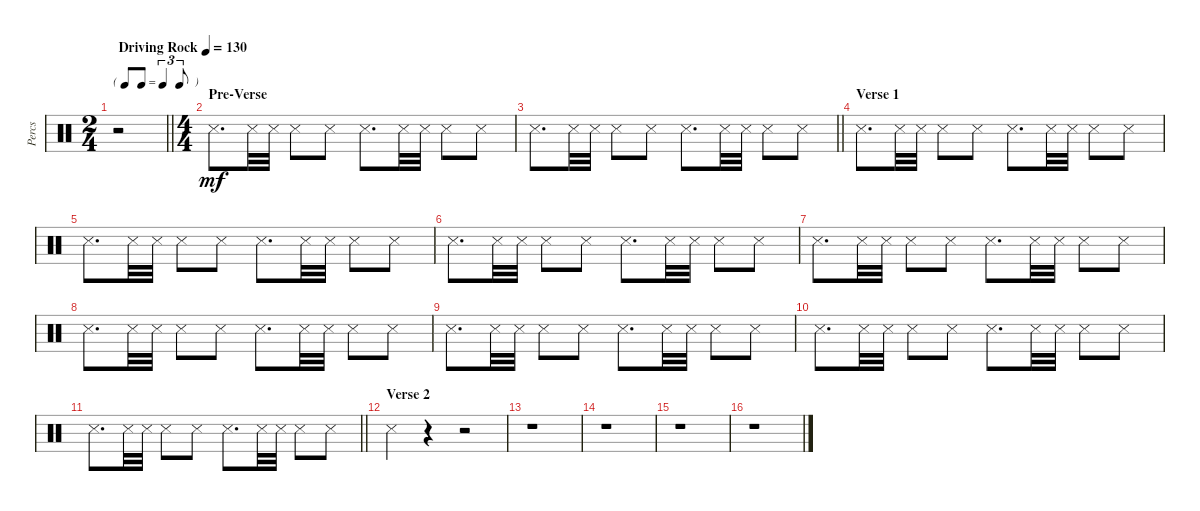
\track ("Percs" "Percs") {instrument percussion}
\staff {score}
\articulation defaults
\ts (2 4)
\tf triplet8th
\tempo (130 "Driving Rock")
\clef neutral
\barLineRight lightlight
\ks c
r.2{dy mf} |
\ts (4 4)
\section ("" "Pre-Verse")
"Snare (side stick) 3".8{d} "Snare (side stick) 3".32 "Snare (side stick) 3".32 "Snare (side stick) 3".8 "Snare (side stick) 3".8 "Snare (side stick) 3".8{d} "Snare (side stick) 3".32 "Snare (side stick) 3".32 "Snare (side stick) 3".8 "Snare (side stick) 3".8 |
\barLineRight lightlight "Snare (side stick) 3".8{d} "Snare (side stick) 3".32 "Snare (side stick) 3".32 "Snare (side stick) 3".8 "Snare (side stick) 3".8 "Snare (side stick) 3".8{d} "Snare (side stick) 3".32 "Snare (side stick) 3".32 "Snare (side stick) 3".8 "Snare (side stick) 3".8
|
\section ("" "Verse 1")
"Snare (side stick) 3".8{d} "Snare (side stick) 3".32 "Snare (side stick) 3".32 "Snare (side stick) 3".8 "Snare (side stick) 3".8 "Snare (side stick) 3".8{d} "Snare (side stick) 3".32 "Snare (side stick) 3".32 "Snare (side stick) 3".8 "Snare (side stick) 3".8 |
"Snare (side stick) 3".8{d} "Snare (side stick) 3".32 "Snare (side stick) 3".32 "Snare (side stick) 3".8 "Snare (side stick) 3".8 "Snare (side stick) 3".8{d} "Snare (side stick) 3".32 "Snare (side stick) 3".32 "Snare (side stick) 3".8 "Snare (side stick) 3".8 |
"Snare (side stick) 3".8{d} "Snare (side stick) 3".32 "Snare (side stick) 3".32 "Snare (side stick) 3".8 "Snare (side stick) 3".8 "Snare (side stick) 3".8{d} "Snare (side stick) 3".32 "Snare (side stick) 3".32 "Snare (side stick) 3".8 "Snare (side stick) 3".8 |
"Snare (side stick) 3".8{d} "Snare (side stick) 3".32 "Snare (side stick) 3".32 "Snare (side stick) 3".8 "Snare (side stick) 3".8 "Snare (side stick) 3".8{d} "Snare (side stick) 3".32 "Snare (side stick) 3".32 "Snare (side stick) 3".8 "Snare (side stick) 3".8 |
"Snare (side stick) 3".8{d} "Snare (side stick) 3".32 "Snare (side stick) 3".32 "Snare (side stick) 3".8 "Snare (side stick) 3".8 "Snare (side stick) 3".8{d} "Snare (side stick) 3".32 "Snare (side stick) 3".32 "Snare (side stick) 3".8 "Snare (side stick) 3".8 |
"Snare (side stick) 3".8{d} "Snare (side stick) 3".32 "Snare (side stick) 3".32 "Snare (side stick) 3".8 "Snare (side stick) 3".8 "Snare (side stick) 3".8{d} "Snare (side stick) 3".32 "Snare (side stick) 3".32 "Snare (side stick) 3".8 "Snare (side stick) 3".8 |
"Snare (side stick) 3".8{d} "Snare (side stick) 3".32 "Snare (side stick) 3".32 "Snare (side stick) 3".8 "Snare (side stick) 3".8 "Snare (side stick) 3".8{d} "Snare (side stick) 3".32 "Snare (side stick) 3".32 "Snare (side stick) 3".8 "Snare (side stick) 3".8 |
\barLineRight lightlight "Snare (side stick) 3".8{d} "Snare (side stick) 3".32 "Snare (side stick) 3".32 "Snare (side stick) 3".8 "Snare (side stick) 3".8 "Snare (side stick) 3".8{d} "Snare (side stick) 3".32 "Snare (side stick) 3".32 "Snare (side stick) 3".8 "Snare (side stick) 3".8
|
\section ("" "Verse 2")
"Snare (side stick) 3".4 r.4 r.2 |
r.1 |
r.1 |
r.1 |
r.1
